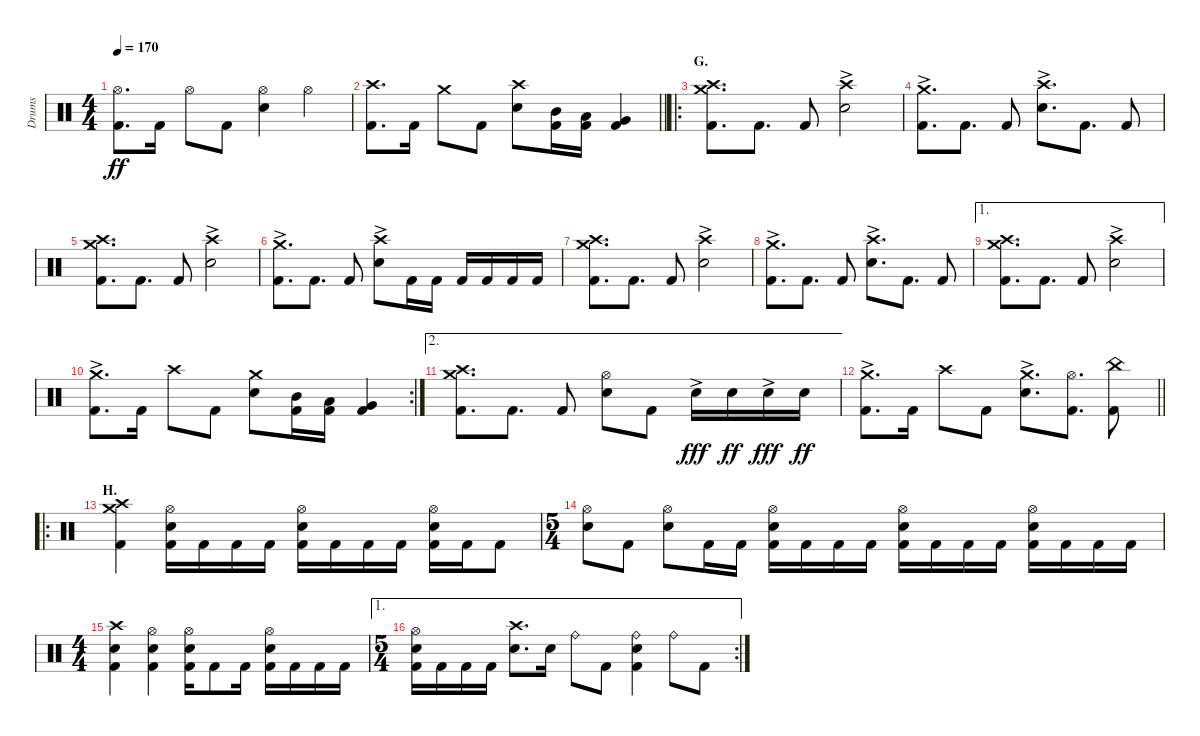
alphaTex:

\track ("Drums" "Drums") {instrument percussion}
\staff {score}
\articulation defaults
\ts (4 4)
\tempo 170
\clef neutral
\ks c
("Hi-Hat (open)" "Kick (hit) 2").8{d dy ff} "Kick (hit) 2".16 "Hi-Hat (open)".8 "Kick (hit) 2".8 ("Hi-Hat (open)" "Electric Snare (hit)").4 "Hi-Hat (open)".4 |
\barLineRight lightlight
("Crash high (hit)" "Kick (hit) 2").8{d} "Kick (hit) 2".16 "Crash medium (hit)".8 "Kick (hit) 2".8 ("Crash high (hit)" "Electric Snare (hit)").8 ("Mid Tom (hit)" "Kick (hit) 2").16 ("Low Tom (hit)" "Kick (hit) 2").16 ("Very Low Tom (hit)" "Kick (hit) 2").4 |
\ro
\section ("" "G.")
("Crash medium (hit)" "Crash high (hit)" "Kick (hit) 2").8{d} "Kick (hit) 2".8{d} "Kick (hit) 2".8 ("Crash high (hit)"{ac} "Electric Snare (hit)").2 |
("Crash medium (hit)"{ac} "Kick (hit) 2").8{d} "Kick (hit) 2".8{d} "Kick (hit) 2".8 ("Crash high (hit)"{ac} "Electric Snare (hit)").8{d} "Kick (hit) 2".8{d} "Kick (hit) 2".8 |
("Crash medium (hit)" "Crash high (hit)" "Kick (hit) 2").8{d} "Kick (hit) 2".8{d} "Kick (hit) 2".8 ("Crash high (hit)"{ac} "Electric Snare (hit)").2 |
("Crash medium (hit)"{ac} "Kick (hit) 2").8{d} "Kick (hit) 2".8{d} "Kick (hit) 2".8 ("Crash high (hit)"{ac} "Electric Snare (hit)").8 "Kick (hit) 2".16 "Kick (hit) 2".16 "Kick (hit) 2".16 "Kick (hit) 2".16 "Kick (hit) 2".16 "Kick (hit) 2".16 |
("Crash medium (hit)" "Crash high (hit)" "Kick (hit) 2").8{d} "Kick (hit) 2".8{d} "Kick (hit) 2".8 ("Crash high (hit)"{ac} "Electric Snare (hit)").2 |
("Crash medium (hit)"{ac} "Kick (hit) 2").8{d} "Kick (hit) 2".8{d} "Kick (hit) 2".8 ("Crash high (hit)"{ac} "Electric Snare (hit)").8{d} "Kick (hit) 2".8{d} "Kick (hit) 2".8 |
\ae 1
("Crash medium (hit)" "Crash high (hit)" "Kick (hit) 2").8{d} "Kick (hit) 2".8{d} "Kick (hit) 2".8 ("Crash high (hit)"{ac} "Electric Snare (hit)").2 |
\rc 2
("Crash medium (hit)"{ac} "Kick (hit) 2").8{d} "Kick (hit) 2".16 "Crash high (hit)".8 "Kick (hit) 2".8 ("Crash medium (hit)" "Electric Snare (hit)").8 ("Mid Tom (hit)" "Kick (hit) 2").16 ("Low Tom (hit)" "Kick (hit) 2").16 ("Very Low Tom (hit)" "Kick (hit) 2").4 |
\ae 2
("Crash medium (hit)" "Crash high (hit)" "Kick (hit) 2").8{d} "Kick (hit) 2".8{d} "Kick (hit) 2".8 ("Hi-Hat (open)" "Electric Snare (hit)").8 "Kick (hit) 2".8 "Electric Snare (hit)"{ac}.16{dy fff} "Electric Snare (hit)".16{dy ff} "Electric Snare (hit)"{ac}.16{dy fff} "Electric Snare (hit)".16{dy ff} |
\barLineRight lightlight
("Crash medium (hit)"{ac} "Kick (hit) 2").8{d} "Kick (hit) 2".16 "Crash high (hit)".8 "Kick (hit) 2".8 ("Crash medium (hit)"{ac} "Electric Snare (hit)").8{d} ("Hi-Hat (open)" "Kick (hit) 2").8{d} ("China (hit)" "Kick (hit) 2").8 |
\ro
\section ("" "H.")
("Crash medium (hit)" "Crash high (hit)" "Kick (hit) 2").4 ("Hi-Hat (open)" "Electric Snare (hit)" "Kick (hit) 2").16 "Kick (hit) 2".16 "Kick (hit) 2".16 "Kick (hit) 2".16 ("Hi-Hat (open)" "Electric Snare (hit)" "Kick (hit) 2").16 "Kick (hit) 2".16 "Kick (hit) 2".16 "Kick (hit) 2".16 ("Hi-Hat (open)" "Electric Snare (hit)" "Kick (hit) 2").16 "Kick (hit) 2".16 "Kick (hit) 2".8 |
\ts (5 4)
("Hi-Hat (open)" "Electric Snare (hit)").8 "Kick (hit) 2".8 ("Hi-Hat (open)" "Electric Snare (hit)").8 "Kick (hit) 2".16 "Kick (hit) 2".16 ("Hi-Hat (open)" "Electric Snare (hit)" "Kick (hit) 2").16 "Kick (hit) 2".16 "Kick (hit) 2".16 "Kick (hit) 2".16 ("Hi-Hat (open)" "Electric Snare (hit)" "Kick (hit) 2").16 "Kick (hit) 2".16 "Kick (hit) 2".16 "Kick (hit) 2".16 ("Hi-Hat (open)" "Electric Snare (hit)" "Kick (hit) 2").16 "Kick (hit) 2".16 "Kick (hit) 2".16 "Kick (hit) 2".16 |
\ts (4 4)
("Crash high (hit)" "Electric Snare (hit)" "Kick (hit) 2").4 ("Hi-Hat (open)" "Electric Snare (hit)" "Kick (hit) 2").4 ("Hi-Hat (open)" "Electric Snare (hit)" "Kick (hit) 2").16 "Kick (hit) 2".8 "Kick (hit) 2".16 ("Hi-Hat (open)" "Electric Snare (hit)" "Kick (hit) 2").16 "Kick (hit) 2".16 "Kick (hit) 2".16 "Kick (hit) 2".16 |
\ae 1
\rc 2
\ts (5 4)
("Hi-Hat (open)" "Electric Snare (hit)" "Kick (hit) 2").16 "Kick (hit) 2".16 "Kick (hit) 2".16 "Kick (hit) 2".16 ("Crash high (hit)" "Electric Snare (hit)").8{d} "Electric Snare (hit)".16 "Ride (bell)".8 "Kick (hit) 2".8 ("Ride (bell)" "Electric Snare (hit)" "Kick (hit) 2").4 "Ride (bell)".8 "Kick (hit) 2".8
